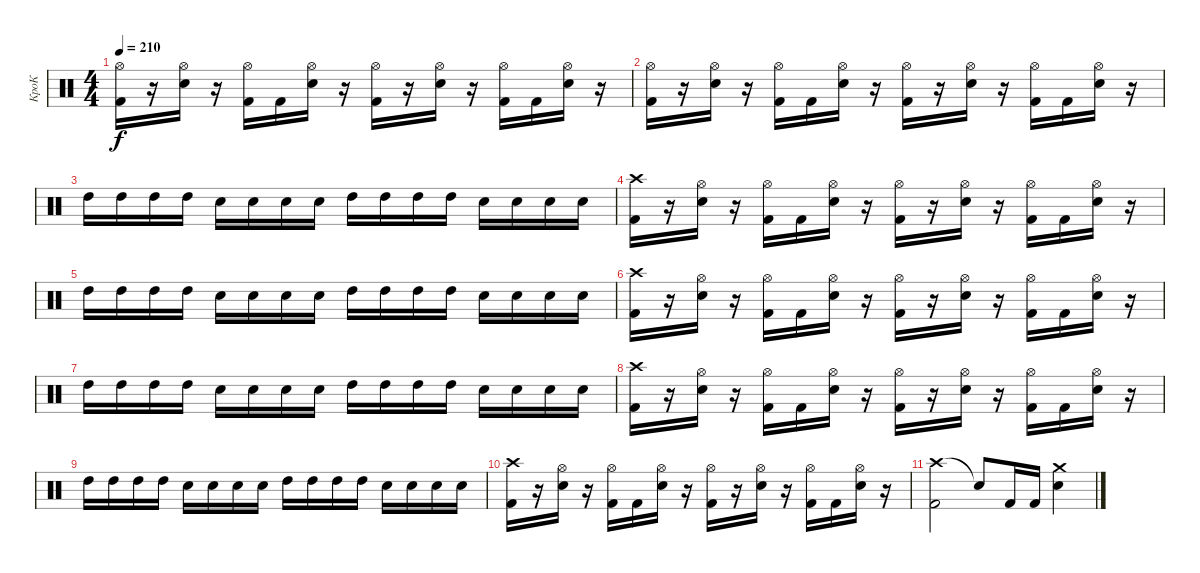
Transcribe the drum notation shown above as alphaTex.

\track ("КроК" "КроК") {instrument percussion}
\staff {score}
\articulation defaults
\ts (4 4)
\tempo 210
\clef neutral
\ks c
("Hi-Hat (open)" "Kick (hit) 2").16{dy f} r.16 ("Hi-Hat (open)" "Electric Snare (hit)").16 r.16 ("Hi-Hat (open)" "Kick (hit) 2").16 "Kick (hit) 2".16 ("Hi-Hat (open)" "Electric Snare (hit)").16 r.16 ("Hi-Hat (open)" "Kick (hit) 2").16 r.16 ("Hi-Hat (open)" "Electric Snare (hit)").16 r.16 ("Hi-Hat (open)" "Kick (hit) 2").16 "Kick (hit) 2".16 ("Hi-Hat (open)" "Electric Snare (hit)").16 r.16 |
("Hi-Hat (open)" "Kick (hit) 2").16 r.16 ("Hi-Hat (open)" "Electric Snare (hit)").16 r.16 ("Hi-Hat (open)" "Kick (hit) 2").16 "Kick (hit) 2".16 ("Hi-Hat (open)" "Electric Snare (hit)").16 r.16 ("Hi-Hat (open)" "Kick (hit) 2").16 r.16 ("Hi-Hat (open)" "Electric Snare (hit)").16 r.16 ("Hi-Hat (open)" "Kick (hit) 2").16 "Kick (hit) 2".16 ("Hi-Hat (open)" "Electric Snare (hit)").16 r.16 |
"High Tom (hit)".16 "High Tom (hit)".16 "High Tom (hit)".16 "High Tom (hit)".16 "Electric Snare (hit)".16 "Electric Snare (hit)".16 "Electric Snare (hit)".16 "Electric Snare (hit)".16 "High Tom (hit)".16 "High Tom (hit)".16 "High Tom (hit)".16 "High Tom (hit)".16 "Electric Snare (hit)".16 "Electric Snare (hit)".16 "Electric Snare (hit)".16 "Electric Snare (hit)".16 |
("Crash high (hit)" "Kick (hit) 2").16 r.16 ("Hi-Hat (open)" "Electric Snare (hit)").16 r.16 ("Hi-Hat (open)" "Kick (hit) 2").16 "Kick (hit) 2".16 ("Hi-Hat (open)" "Electric Snare (hit)").16 r.16 ("Hi-Hat (open)" "Kick (hit) 2").16 r.16 ("Hi-Hat (open)" "Electric Snare (hit)").16 r.16 ("Hi-Hat (open)" "Kick (hit) 2").16 "Kick (hit) 2".16 ("Hi-Hat (open)" "Electric Snare (hit)").16 r.16 |
"High Tom (hit)".16 "High Tom (hit)".16 "High Tom (hit)".16 "High Tom (hit)".16 "Electric Snare (hit)".16 "Electric Snare (hit)".16 "Electric Snare (hit)".16 "Electric Snare (hit)".16 "High Tom (hit)".16 "High Tom (hit)".16 "High Tom (hit)".16 "High Tom (hit)".16 "Electric Snare (hit)".16 "Electric Snare (hit)".16 "Electric Snare (hit)".16 "Electric Snare (hit)".16 |
("Crash high (hit)" "Kick (hit) 2").16 r.16 ("Hi-Hat (open)" "Electric Snare (hit)").16 r.16 ("Hi-Hat (open)" "Kick (hit) 2").16 "Kick (hit) 2".16 ("Hi-Hat (open)" "Electric Snare (hit)").16 r.16 ("Hi-Hat (open)" "Kick (hit) 2").16 r.16 ("Hi-Hat (open)" "Electric Snare (hit)").16 r.16 ("Hi-Hat (open)" "Kick (hit) 2").16 "Kick (hit) 2".16 ("Hi-Hat (open)" "Electric Snare (hit)").16 r.16 |
"High Tom (hit)".16 "High Tom (hit)".16 "High Tom (hit)".16 "High Tom (hit)".16 "Electric Snare (hit)".16 "Electric Snare (hit)".16 "Electric Snare (hit)".16 "Electric Snare (hit)".16 "High Tom (hit)".16 "High Tom (hit)".16 "High Tom (hit)".16 "High Tom (hit)".16 "Electric Snare (hit)".16 "Electric Snare (hit)".16 "Electric Snare (hit)".16 "Electric Snare (hit)".16 |
("Crash high (hit)" "Kick (hit) 2").16 r.16 ("Hi-Hat (open)" "Electric Snare (hit)").16 r.16 ("Hi-Hat (open)" "Kick (hit) 2").16 "Kick (hit) 2".16 ("Hi-Hat (open)" "Electric Snare (hit)").16 r.16 ("Hi-Hat (open)" "Kick (hit) 2").16 r.16 ("Hi-Hat (open)" "Electric Snare (hit)").16 r.16 ("Hi-Hat (open)" "Kick (hit) 2").16 "Kick (hit) 2".16 ("Hi-Hat (open)" "Electric Snare (hit)").16 r.16 |
"High Tom (hit)".16 "High Tom (hit)".16 "High Tom (hit)".16 "High Tom (hit)".16 "Electric Snare (hit)".16 "Electric Snare (hit)".16 "Electric Snare (hit)".16 "Electric Snare (hit)".16 "High Tom (hit)".16 "High Tom (hit)".16 "High Tom (hit)".16 "High Tom (hit)".16 "Electric Snare (hit)".16 "Electric Snare (hit)".16 "Electric Snare (hit)".16 "Electric Snare (hit)".16 |
("Crash high (hit)" "Kick (hit) 2").16 r.16 ("Hi-Hat (open)" "Electric Snare (hit)").16 r.16 ("Hi-Hat (open)" "Kick (hit) 2").16 "Kick (hit) 2".16 ("Hi-Hat (open)" "Electric Snare (hit)").16 r.16 ("Hi-Hat (open)" "Kick (hit) 2").16 r.16 ("Hi-Hat (open)" "Electric Snare (hit)").16 r.16 ("Hi-Hat (open)" "Kick (hit) 2").16 "Kick (hit) 2".16 ("Hi-Hat (open)" "Electric Snare (hit)").16 r.16 |
("Crash high (hit)" "Kick (hit) 2").2 "Snare (hit)"{t}.8 "Kick (hit) 2".16 "Kick (hit) 2".16 ("Crash medium (hit)" "Electric Snare (hit)").4
